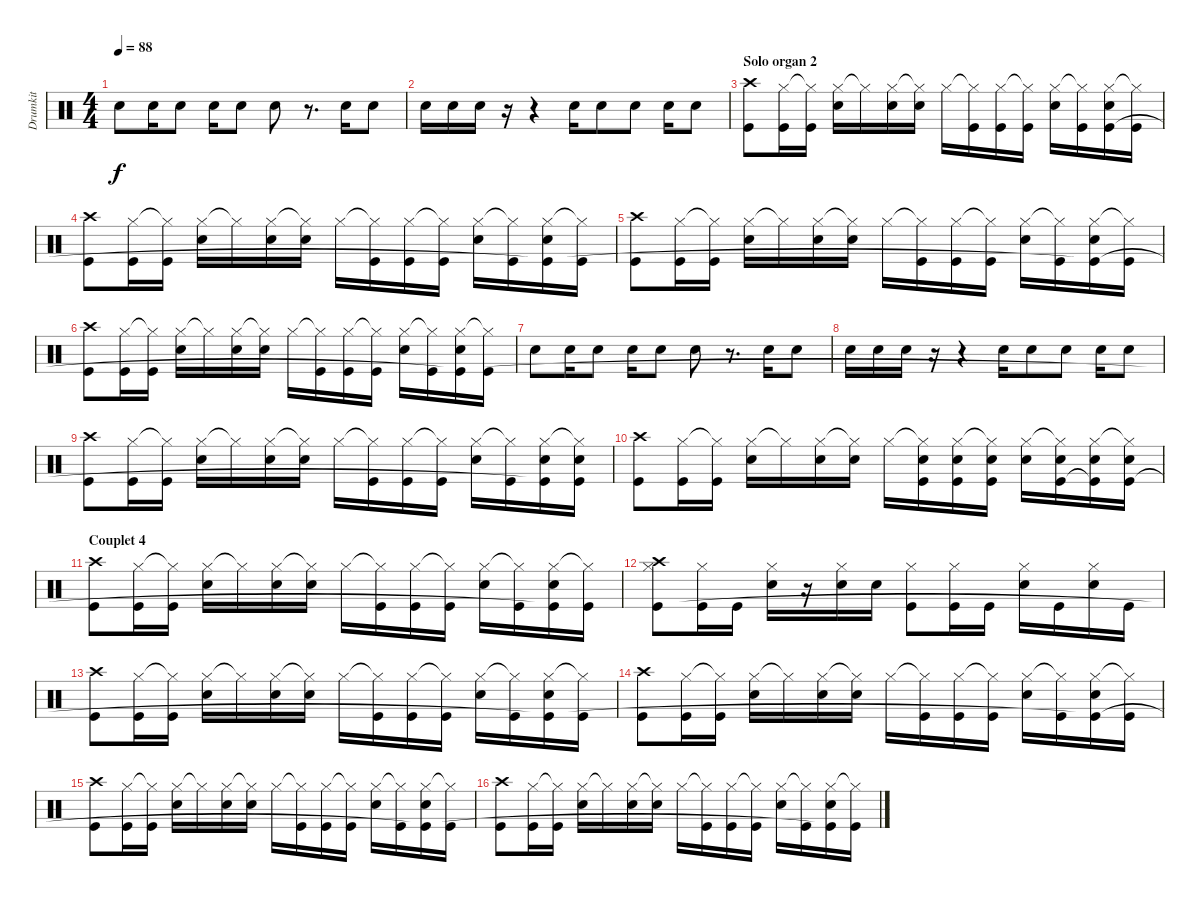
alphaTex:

\track ("Drumkit" "Drumkit") {instrument percussion}
\staff {score}
\articulation defaults
\ts (4 4)
\tempo 88
\clef neutral
\ks c "Snare (hit) 2".8{dy f} "Snare (hit) 2".16 "Snare (hit) 2".8 "Snare (hit) 2".16 "Snare (hit) 2".8 "Snare (hit) 2".8
r.8{d} "Snare (hit) 2".16 "Snare (hit) 2".8 |
"Snare (hit) 2".16 "Snare (hit) 2".16 "Snare (hit) 2".16 r.16 r.4 "Snare (hit) 2".16 "Snare (hit) 2".8 "Snare (hit) 2".8 "Snare (hit) 2".16 "Snare (hit) 2".8 |
\section ("" "Solo organ 2")
("Crash high (hit)" "Kick (hit)").8 ("Hi-Hat (closed)" "Kick (hit)").16 ("Hi-Hat (closed)"{t} "Kick (hit)").16 ("Hi-Hat (closed)" "Snare (hit) 2").16 "Hi-Hat (closed)"{t}.16 ("Hi-Hat (closed)" "Snare (hit) 2").16 ("Hi-Hat (closed)"{t} "Snare (hit) 2").16 "Hi-Hat (closed)".16 ("Hi-Hat (closed)"{t} "Kick (hit)").16 ("Hi-Hat (closed)" "Kick (hit)").16 ("Hi-Hat (closed)"{t} "Kick (hit)").16 ("Hi-Hat (closed)" "Snare (hit) 2").16 ("Hi-Hat (closed)"{t} "Kick (hit)").16 ("Hi-Hat (closed)" "Snare (hit) 2" "Kick (hit)"{t}).16 ("Hi-Hat (closed)"{t} "Kick (hit)").16 |
("Crash high (hit)" "Kick (hit)").8 ("Hi-Hat (closed)" "Kick (hit)").16 ("Hi-Hat (closed)"{t} "Kick (hit)").16 ("Hi-Hat (closed)" "Snare (hit) 2").16 "Hi-Hat (closed)"{t}.16 ("Hi-Hat (closed)" "Snare (hit) 2").16 ("Hi-Hat (closed)"{t} "Snare (hit) 2").16 "Hi-Hat (closed)".16 ("Hi-Hat (closed)"{t} "Kick (hit)").16 ("Hi-Hat (closed)" "Kick (hit)").16 ("Hi-Hat (closed)"{t} "Kick (hit)").16 ("Hi-Hat (closed)" "Snare (hit) 2").16 ("Hi-Hat (closed)"{t} "Kick (hit)").16 ("Hi-Hat (closed)" "Snare (hit) 2" "Kick (hit)"{t}).16 ("Hi-Hat (closed)"{t} "Kick (hit)").16 |
("Crash high (hit)" "Kick (hit)").8 ("Hi-Hat (closed)" "Kick (hit)").16 ("Hi-Hat (closed)"{t} "Kick (hit)").16 ("Hi-Hat (closed)" "Snare (hit) 2").16 "Hi-Hat (closed)"{t}.16 ("Hi-Hat (closed)" "Snare (hit) 2").16 ("Hi-Hat (closed)"{t} "Snare (hit) 2").16 "Hi-Hat (closed)".16 ("Hi-Hat (closed)"{t} "Kick (hit)").16 ("Hi-Hat (closed)" "Kick (hit)").16 ("Hi-Hat (closed)"{t} "Kick (hit)").16 ("Hi-Hat (closed)" "Snare (hit) 2").16 ("Hi-Hat (closed)"{t} "Kick (hit)").16 ("Hi-Hat (closed)" "Snare (hit) 2" "Kick (hit)"{t}).16 ("Hi-Hat (closed)"{t} "Kick (hit)").16 |
("Crash high (hit)" "Kick (hit)").8 ("Hi-Hat (closed)" "Kick (hit)").16 ("Hi-Hat (closed)"{t} "Kick (hit)").16 ("Hi-Hat (closed)" "Snare (hit) 2").16 "Hi-Hat (closed)"{t}.16 ("Hi-Hat (closed)" "Snare (hit) 2").16 ("Hi-Hat (closed)"{t} "Snare (hit) 2").16 "Hi-Hat (closed)".16 ("Hi-Hat (closed)"{t} "Kick (hit)").16 ("Hi-Hat (closed)" "Kick (hit)").16 ("Hi-Hat (closed)"{t} "Kick (hit)").16 ("Hi-Hat (closed)" "Snare (hit) 2").16 ("Hi-Hat (closed)"{t} "Kick (hit)").16 ("Hi-Hat (closed)" "Snare (hit) 2" "Kick (hit)"{t}).16 ("Hi-Hat (closed)"{t} "Kick (hit)").16 |
"Snare (hit) 2".8 "Snare (hit) 2".16 "Snare (hit) 2".8 "Snare (hit) 2".16 "Snare (hit) 2".8 "Snare (hit) 2".8 r.8{d} "Snare (hit) 2".16 "Snare (hit) 2".8 |
"Snare (hit) 2".16 "Snare (hit) 2".16 "Snare (hit) 2".16 r.16 r.4 "Snare (hit) 2".16 "Snare (hit) 2".8 "Snare (hit) 2".8 "Snare (hit) 2".16 "Snare (hit) 2".8 |
("Crash high (hit)" "Kick (hit)").8 ("Hi-Hat (closed)" "Kick (hit)").16 ("Hi-Hat (closed)"{t} "Kick (hit)").16 ("Hi-Hat (closed)" "Snare (hit) 2").16 "Hi-Hat (closed)"{t}.16 ("Hi-Hat (closed)" "Snare (hit) 2").16 ("Hi-Hat (closed)"{t} "Snare (hit) 2").16 "Hi-Hat (closed)".16 ("Hi-Hat (closed)"{t} "Kick (hit)").16 ("Hi-Hat (closed)" "Kick (hit)").16 ("Hi-Hat (closed)"{t} "Kick (hit)").16 ("Hi-Hat (closed)" "Snare (hit) 2").16 ("Hi-Hat (closed)"{t} "Kick (hit)").16 ("Hi-Hat (closed)" "Snare (hit) 2" "Kick (hit)"{t}).16 ("Hi-Hat (closed)"{t} "Snare (hit) 2" "Kick (hit)").16 |
("Crash high (hit)" "Kick (hit)").8 ("Hi-Hat (closed)" "Kick (hit)").16 ("Hi-Hat (closed)"{t} "Kick (hit)").16 ("Hi-Hat (closed)" "Snare (hit) 2").16 "Hi-Hat (closed)"{t}.16 ("Hi-Hat (closed)" "Snare (hit) 2").16 ("Hi-Hat (closed)"{t} "Snare (hit) 2").16 "Hi-Hat (closed)".16 ("Hi-Hat (closed)"{t} "Snare (hit) 2" "Kick (hit)").16 ("Hi-Hat (closed)" "Snare (hit) 2" "Kick (hit)").16 ("Hi-Hat (closed)"{t} "Snare (hit) 2" "Kick (hit)").16 ("Hi-Hat (closed)" "Snare (hit) 2").16 ("Hi-Hat (closed)"{t} "Snare (hit) 2" "Kick (hit)").16 ("Hi-Hat (closed)" "Snare (hit) 2" "Kick (hit)"{t}).16 ("Hi-Hat (closed)"{t} "Snare (hit) 2" "Kick (hit)").16 |
\section ("" "Couplet 4 ")
("Crash high (hit)" "Kick (hit)").8 ("Hi-Hat (closed)" "Kick (hit)").16 ("Hi-Hat (closed)"{t} "Kick (hit)").16 ("Hi-Hat (closed)" "Snare (hit) 2").16 "Hi-Hat (closed)"{t}.16 ("Hi-Hat (closed)" "Snare (hit) 2").16 ("Hi-Hat (closed)"{t} "Snare (hit) 2").16 "Hi-Hat (closed)".16 ("Hi-Hat (closed)"{t} "Kick (hit)").16 ("Hi-Hat (closed)" "Kick (hit)").16 ("Hi-Hat (closed)"{t} "Kick (hit)").16 ("Hi-Hat (closed)" "Snare (hit) 2").16 ("Hi-Hat (closed)"{t} "Kick (hit)").16 ("Hi-Hat (closed)" "Snare (hit) 2" "Kick (hit)"{t}).16 ("Hi-Hat (closed)"{t} "Kick (hit)").16 |
("Hi-Hat (closed)" "Crash high (hit)" "Kick (hit)").8 ("Hi-Hat (closed)" "Kick (hit)").16 "Kick (hit)".16 ("Hi-Hat (closed)" "Snare (hit) 2").16 r.16 ("Hi-Hat (closed)" "Snare (hit) 2").16 "Snare (hit) 2".16 ("Hi-Hat (closed)" "Kick (hit)").8 ("Hi-Hat (closed)" "Kick (hit)").16 "Kick (hit)".16 ("Hi-Hat (closed)" "Snare (hit) 2").16 "Kick (hit)".16 ("Hi-Hat (closed)" "Snare (hit) 2").16 "Kick (hit)".16 |
("Crash high (hit)" "Kick (hit)").8 ("Hi-Hat (closed)" "Kick (hit)").16 ("Hi-Hat (closed)"{t} "Kick (hit)").16 ("Hi-Hat (closed)" "Snare (hit) 2").16 "Hi-Hat (closed)"{t}.16 ("Hi-Hat (closed)" "Snare (hit) 2").16 ("Hi-Hat (closed)"{t} "Snare (hit) 2").16 "Hi-Hat (closed)".16 ("Hi-Hat (closed)"{t} "Kick (hit)").16 ("Hi-Hat (closed)" "Kick (hit)").16 ("Hi-Hat (closed)"{t} "Kick (hit)").16 ("Hi-Hat (closed)" "Snare (hit) 2").16 ("Hi-Hat (closed)"{t} "Kick (hit)").16 ("Hi-Hat (closed)" "Snare (hit) 2" "Kick (hit)"{t}).16 ("Hi-Hat (closed)"{t} "Kick (hit)").16 |
("Crash high (hit)" "Kick (hit)").8 ("Hi-Hat (closed)" "Kick (hit)").16 ("Hi-Hat (closed)"{t} "Kick (hit)").16 ("Hi-Hat (closed)" "Snare (hit) 2").16 "Hi-Hat (closed)"{t}.16 ("Hi-Hat (closed)" "Snare (hit) 2").16 ("Hi-Hat (closed)"{t} "Snare (hit) 2").16 "Hi-Hat (closed)".16 ("Hi-Hat (closed)"{t} "Kick (hit)").16 ("Hi-Hat (closed)" "Kick (hit)").16 ("Hi-Hat (closed)"{t} "Kick (hit)").16 ("Hi-Hat (closed)" "Snare (hit) 2").16 ("Hi-Hat (closed)"{t} "Kick (hit)").16 ("Hi-Hat (closed)" "Snare (hit) 2" "Kick (hit)"{t}).16 ("Hi-Hat (closed)"{t} "Kick (hit)").16 |
("Crash high (hit)" "Kick (hit)").8 ("Hi-Hat (closed)" "Kick (hit)").16 ("Hi-Hat (closed)"{t} "Kick (hit)").16 ("Hi-Hat (closed)" "Snare (hit) 2").16 "Hi-Hat (closed)"{t}.16 ("Hi-Hat (closed)" "Snare (hit) 2").16 ("Hi-Hat (closed)"{t} "Snare (hit) 2").16 "Hi-Hat (closed)".16 ("Hi-Hat (closed)"{t} "Kick (hit)").16 ("Hi-Hat (closed)" "Kick (hit)").16 ("Hi-Hat (closed)"{t} "Kick (hit)").16 ("Hi-Hat (closed)" "Snare (hit) 2").16 ("Hi-Hat (closed)"{t} "Kick (hit)").16 ("Hi-Hat (closed)" "Snare (hit) 2" "Kick (hit)"{t}).16 ("Hi-Hat (closed)"{t} "Kick (hit)").16 |
("Crash high (hit)" "Kick (hit)").8 ("Hi-Hat (closed)" "Kick (hit)").16 ("Hi-Hat (closed)"{t} "Kick (hit)").16 ("Hi-Hat (closed)" "Snare (hit) 2").16 "Hi-Hat (closed)"{t}.16 ("Hi-Hat (closed)" "Snare (hit) 2").16 ("Hi-Hat (closed)"{t} "Snare (hit) 2").16 "Hi-Hat (closed)".16 ("Hi-Hat (closed)"{t} "Kick (hit)").16 ("Hi-Hat (closed)" "Kick (hit)").16 ("Hi-Hat (closed)"{t} "Kick (hit)").16 ("Hi-Hat (closed)" "Snare (hit) 2").16 ("Hi-Hat (closed)"{t} "Kick (hit)").16 ("Hi-Hat (closed)" "Snare (hit) 2" "Kick (hit)"{t}).16 ("Hi-Hat (closed)"{t} "Kick (hit)").16
